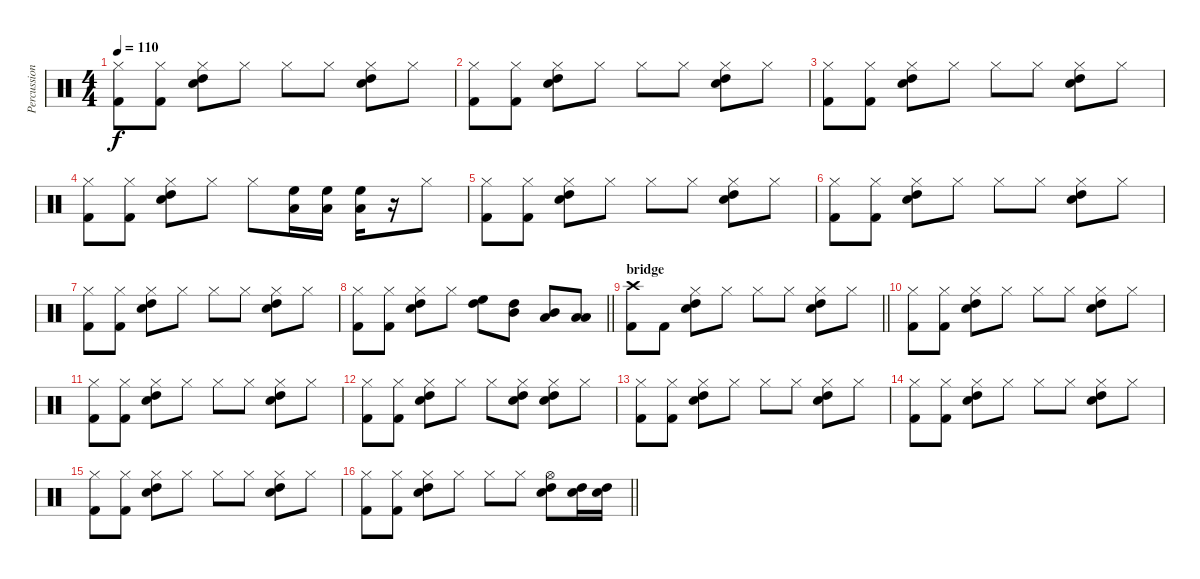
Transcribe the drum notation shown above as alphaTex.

\track ("Percussion" "Percussion") {instrument percussion}
\staff {score}
\articulation defaults
\ts (4 4)
\tempo 110
\clef neutral
\ks c
("Hi-Hat (closed)" "Kick (hit) 2").8{dy f} ("Hi-Hat (closed)" "Kick (hit) 2").8 ("Hi-Hat (closed)" "High Tom (hit)" "Snare (hit) 2").8 "Hi-Hat (closed)".8 "Hi-Hat (closed)".8 "Hi-Hat (closed)".8 ("Hi-Hat (closed)" "High Tom (hit)" "Snare (hit) 2").8 "Hi-Hat (closed)".8 |
("Hi-Hat (closed)" "Kick (hit) 2").8 ("Hi-Hat (closed)" "Kick (hit) 2").8 ("Hi-Hat (closed)" "High Tom (hit)" "Snare (hit) 2").8 "Hi-Hat (closed)".8 "Hi-Hat (closed)".8 "Hi-Hat (closed)".8 ("Hi-Hat (closed)" "High Tom (hit)" "Snare (hit) 2").8 "Hi-Hat (closed)".8 |
("Hi-Hat (closed)" "Kick (hit) 2").8 ("Hi-Hat (closed)" "Kick (hit) 2").8 ("Hi-Hat (closed)" "High Tom (hit)" "Snare (hit) 2").8 "Hi-Hat (closed)".8 "Hi-Hat (closed)".8 "Hi-Hat (closed)".8 ("Hi-Hat (closed)" "High Tom (hit)" "Snare (hit) 2").8 "Hi-Hat (closed)".8 |
("Hi-Hat (closed)" "Kick (hit) 2").8 ("Hi-Hat (closed)" "Kick (hit) 2").8 ("Hi-Hat (closed)" "High Tom (hit)" "Snare (hit) 2").8 "Hi-Hat (closed)".8 "Hi-Hat (closed)".8 ("High Floor Tom (hit)" "Low Tom (hit)").16 ("High Floor Tom (hit)" "Low Tom (hit)").16 ("High Floor Tom (hit)" "Low Tom (hit)").16 r.16 "Hi-Hat (closed)".8 |
("Hi-Hat (closed)" "Kick (hit) 2").8 ("Hi-Hat (closed)" "Kick (hit) 2").8 ("Hi-Hat (closed)" "High Tom (hit)" "Snare (hit) 2").8 "Hi-Hat (closed)".8 "Hi-Hat (closed)".8 "Hi-Hat (closed)".8 ("Hi-Hat (closed)" "High Tom (hit)" "Snare (hit) 2").8 "Hi-Hat (closed)".8 |
("Hi-Hat (closed)" "Kick (hit) 2").8 ("Hi-Hat (closed)" "Kick (hit) 2").8 ("Hi-Hat (closed)" "High Tom (hit)" "Snare (hit) 2").8 "Hi-Hat (closed)".8 "Hi-Hat (closed)".8 "Hi-Hat (closed)".8 ("Hi-Hat (closed)" "High Tom (hit)" "Snare (hit) 2").8 "Hi-Hat (closed)".8 |
("Hi-Hat (closed)" "Kick (hit) 2").8 ("Hi-Hat (closed)" "Kick (hit) 2").8 ("Hi-Hat (closed)" "High Tom (hit)" "Snare (hit) 2").8 "Hi-Hat (closed)".8 "Hi-Hat (closed)".8 "Hi-Hat (closed)".8 ("Hi-Hat (closed)" "High Tom (hit)" "Snare (hit) 2").8 "Hi-Hat (closed)".8 |
\barLineRight lightlight
("Hi-Hat (closed)" "Kick (hit) 2").8 ("Hi-Hat (closed)" "Kick (hit) 2").8 ("Hi-Hat (closed)" "High Tom (hit)" "Snare (hit) 2").8 "Hi-Hat (closed)".8 ("High Floor Tom (hit)" "High Tom (hit)").8 ("High Tom (hit)" "Mid Tom (hit)").8 ("Mid Tom (hit)" "Low Tom (hit)").8 ("Low Tom (hit)" "Low Floor Tom (hit)").8 |
\section ("" "bridge")
\barLineRight lightlight
("Crash high (hit)" "Kick (hit) 2").8 "Kick (hit) 2".8 ("Hi-Hat (closed)" "High Tom (hit)" "Snare (hit) 2").8 "Hi-Hat (closed)".8 "Hi-Hat (closed)".8 "Hi-Hat (closed)".8 ("Hi-Hat (closed)" "High Tom (hit)" "Snare (hit) 2").8 "Hi-Hat (closed)".8 |
\section ("" "")
("Hi-Hat (closed)" "Kick (hit) 2").8 ("Hi-Hat (closed)" "Kick (hit) 2").8 ("Hi-Hat (closed)" "High Tom (hit)" "Snare (hit) 2").8 "Hi-Hat (closed)".8 "Hi-Hat (closed)".8 "Hi-Hat (closed)".8 ("Hi-Hat (closed)" "High Tom (hit)" "Snare (hit) 2").8 "Hi-Hat (closed)".8 |
("Hi-Hat (closed)" "Kick (hit) 2").8 ("Hi-Hat (closed)" "Kick (hit) 2").8 ("Hi-Hat (closed)" "High Tom (hit)" "Snare (hit) 2").8 "Hi-Hat (closed)".8 "Hi-Hat (closed)".8 "Hi-Hat (closed)".8 ("Hi-Hat (closed)" "High Tom (hit)" "Snare (hit) 2").8 "Hi-Hat (closed)".8 |
("Hi-Hat (closed)" "Kick (hit) 2").8 ("Hi-Hat (closed)" "Kick (hit) 2").8 ("Hi-Hat (closed)" "High Tom (hit)" "Snare (hit) 2").8 "Hi-Hat (closed)".8 "Hi-Hat (closed)".8 ("Hi-Hat (closed)" "High Tom (hit)" "Snare (hit) 2").8 ("Hi-Hat (closed)" "High Tom (hit)" "Snare (hit) 2").8 "Hi-Hat (closed)".8 |
("Hi-Hat (closed)" "Kick (hit) 2").8 ("Hi-Hat (closed)" "Kick (hit) 2").8 ("Hi-Hat (closed)" "High Tom (hit)" "Snare (hit) 2").8 "Hi-Hat (closed)".8 "Hi-Hat (closed)".8 "Hi-Hat (closed)".8 ("Hi-Hat (closed)" "High Tom (hit)" "Snare (hit) 2").8 "Hi-Hat (closed)".8 |
("Hi-Hat (closed)" "Kick (hit) 2").8 ("Hi-Hat (closed)" "Kick (hit) 2").8 ("Hi-Hat (closed)" "High Tom (hit)" "Snare (hit) 2").8 "Hi-Hat (closed)".8 "Hi-Hat (closed)".8 "Hi-Hat (closed)".8 ("Hi-Hat (closed)" "High Tom (hit)" "Snare (hit) 2").8 "Hi-Hat (closed)".8 |
("Hi-Hat (closed)" "Kick (hit) 2").8 ("Hi-Hat (closed)" "Kick (hit) 2").8 ("Hi-Hat (closed)" "High Tom (hit)" "Snare (hit) 2").8 "Hi-Hat (closed)".8 "Hi-Hat (closed)".8 "Hi-Hat (closed)".8 ("Hi-Hat (closed)" "High Tom (hit)" "Snare (hit) 2").8 "Hi-Hat (closed)".8 |
\barLineRight lightlight
("Hi-Hat (closed)" "Kick (hit) 2").8 ("Hi-Hat (closed)" "Kick (hit) 2").8 ("Hi-Hat (closed)" "High Tom (hit)" "Snare (hit) 2").8 "Hi-Hat (closed)".8 "Hi-Hat (closed)".8 "Hi-Hat (closed)".8 ("Hi-Hat (open)" "High Tom (hit)" "Snare (hit) 2").8 ("High Tom (hit)" "Snare (hit) 2").16 ("High Tom (hit)" "Snare (hit) 2").16
